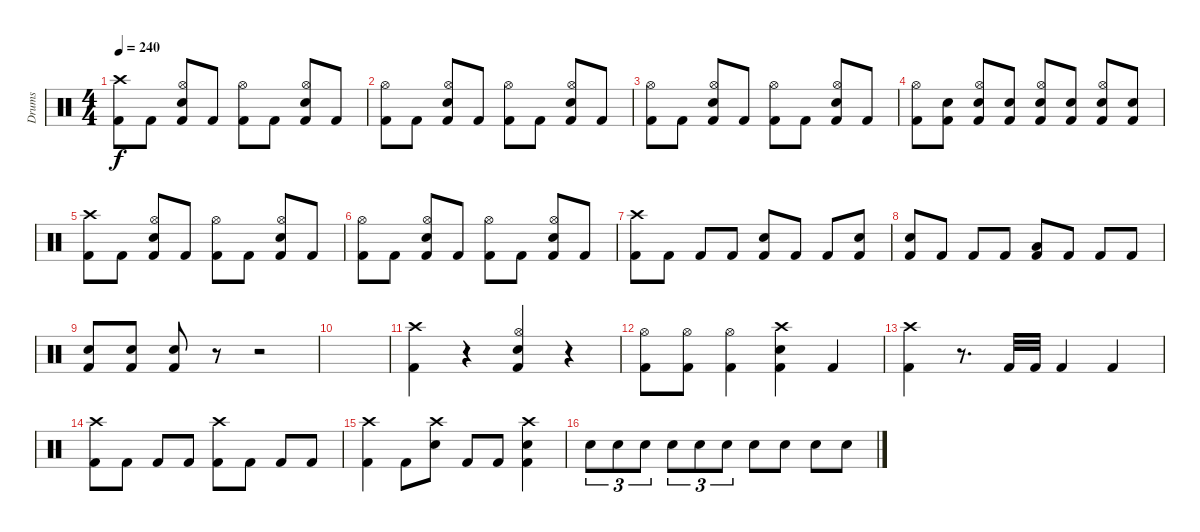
\track ("Drums" "Drums") {instrument percussion}
\staff {score}
\articulation defaults
\ts (4 4)
\tempo 240
\clef neutral
\ks c
("Crash high (hit)" "Kick (hit) 2").8{dy f} "Kick (hit) 2".8 ("Hi-Hat (open)" "Snare (hit) 2" "Kick (hit) 2").8 "Kick (hit) 2".8 ("Hi-Hat (open)" "Kick (hit) 2").8 "Kick (hit) 2".8 ("Hi-Hat (open)" "Snare (hit) 2" "Kick (hit) 2").8 "Kick (hit) 2".8 |
("Hi-Hat (open)" "Kick (hit) 2").8 "Kick (hit) 2".8 ("Hi-Hat (open)" "Snare (hit) 2" "Kick (hit) 2").8 "Kick (hit) 2".8 ("Hi-Hat (open)" "Kick (hit) 2").8 "Kick (hit) 2".8 ("Hi-Hat (open)" "Snare (hit) 2" "Kick (hit) 2").8 "Kick (hit) 2".8 |
("Hi-Hat (open)" "Kick (hit) 2").8 "Kick (hit) 2".8 ("Hi-Hat (open)" "Snare (hit) 2" "Kick (hit) 2").8 "Kick (hit) 2".8 ("Hi-Hat (open)" "Kick (hit) 2").8 "Kick (hit) 2".8 ("Hi-Hat (open)" "Snare (hit) 2" "Kick (hit) 2").8 "Kick (hit) 2".8 |
("Hi-Hat (open)" "Kick (hit) 2").8 ("Snare (hit) 2" "Kick (hit) 2").8 ("Hi-Hat (open)" "Snare (hit) 2" "Kick (hit) 2").8 ("Snare (hit) 2" "Kick (hit) 2").8 ("Hi-Hat (open)" "Snare (hit) 2" "Kick (hit) 2").8 ("Snare (hit) 2" "Kick (hit) 2").8 ("Hi-Hat (open)" "Snare (hit) 2" "Kick (hit) 2").8 ("Snare (hit) 2" "Kick (hit) 2").8 |
("Crash high (hit)" "Kick (hit) 2").8 "Kick (hit) 2".8 ("Hi-Hat (open)" "Snare (hit) 2" "Kick (hit) 2").8 "Kick (hit) 2".8 ("Hi-Hat (open)" "Kick (hit) 2").8 "Kick (hit) 2".8 ("Hi-Hat (open)" "Snare (hit) 2" "Kick (hit) 2").8 "Kick (hit) 2".8 |
("Hi-Hat (open)" "Kick (hit) 2").8 "Kick (hit) 2".8 ("Hi-Hat (open)" "Snare (hit) 2" "Kick (hit) 2").8 "Kick (hit) 2".8 ("Hi-Hat (open)" "Kick (hit) 2").8 "Kick (hit) 2".8 ("Hi-Hat (open)" "Snare (hit) 2" "Kick (hit) 2").8 "Kick (hit) 2".8 |
("Crash high (hit)" "Kick (hit) 2").8 "Kick (hit) 2".8 "Kick (hit) 2".8 "Kick (hit) 2".8 ("Snare (hit) 2" "Kick (hit) 2").8 "Kick (hit) 2".8 "Kick (hit) 2".8 ("Snare (hit) 2" "Kick (hit) 2").8 |
("Snare (hit) 2" "Kick (hit) 2").8 "Kick (hit) 2".8 "Kick (hit) 2".8 "Kick (hit) 2".8 ("Low Floor Tom (hit)" "Kick (hit) 2").8 "Kick (hit) 2".8 "Kick (hit) 2".8 "Kick (hit) 2".8 |
("Snare (hit) 2" "Kick (hit) 2").8 ("Snare (hit) 2" "Kick (hit) 2").8 ("Snare (hit) 2" "Kick (hit) 2").8 r.8 r.2 |
|
("Crash high (hit)" "Kick (hit) 2").4 r.4 ("Hi-Hat (open)" "Snare (hit) 2" "Kick (hit) 2").4 r.4 |
("Hi-Hat (open)" "Kick (hit) 2").8 ("Hi-Hat (open)" "Kick (hit) 2").8 ("Hi-Hat (open)" "Kick (hit) 2").4 ("Crash high (hit)" "Snare (hit) 2" "Kick (hit) 2").4 "Kick (hit) 2".4 |
("Crash high (hit)" "Kick (hit) 2").4 r.8{d} "Kick (hit) 2".32 "Kick (hit) 2".32 "Kick (hit) 2".4 "Kick (hit) 2".4 |
("Crash high (hit)" "Kick (hit) 2").8 "Kick (hit) 2".8 "Kick (hit) 2".8 "Kick (hit) 2".8 ("Crash high (hit)" "Kick (hit) 2").8 "Kick (hit) 2".8 "Kick (hit) 2".8 "Kick (hit) 2".8 |
("Crash high (hit)" "Kick (hit) 2").4 "Kick (hit) 2".8 ("Crash high (hit)" "Snare (hit) 2").8 "Kick (hit) 2".8 "Kick (hit) 2".8 ("Crash high (hit)" "Snare (hit) 2" "Kick (hit) 2").4 |
"Snare (hit) 2".8{tu (3 2)} "Snare (hit) 2".8{tu (3 2)} "Snare (hit) 2".8{tu (3 2)} "Snare (hit) 2".8{tu (3 2)} "Snare (hit) 2".8{tu (3 2)} "Snare (hit) 2".8{tu (3 2)} "Snare (hit) 2".8 "Snare (hit) 2".8 "Snare (hit) 2".8 "Snare (hit) 2".8
